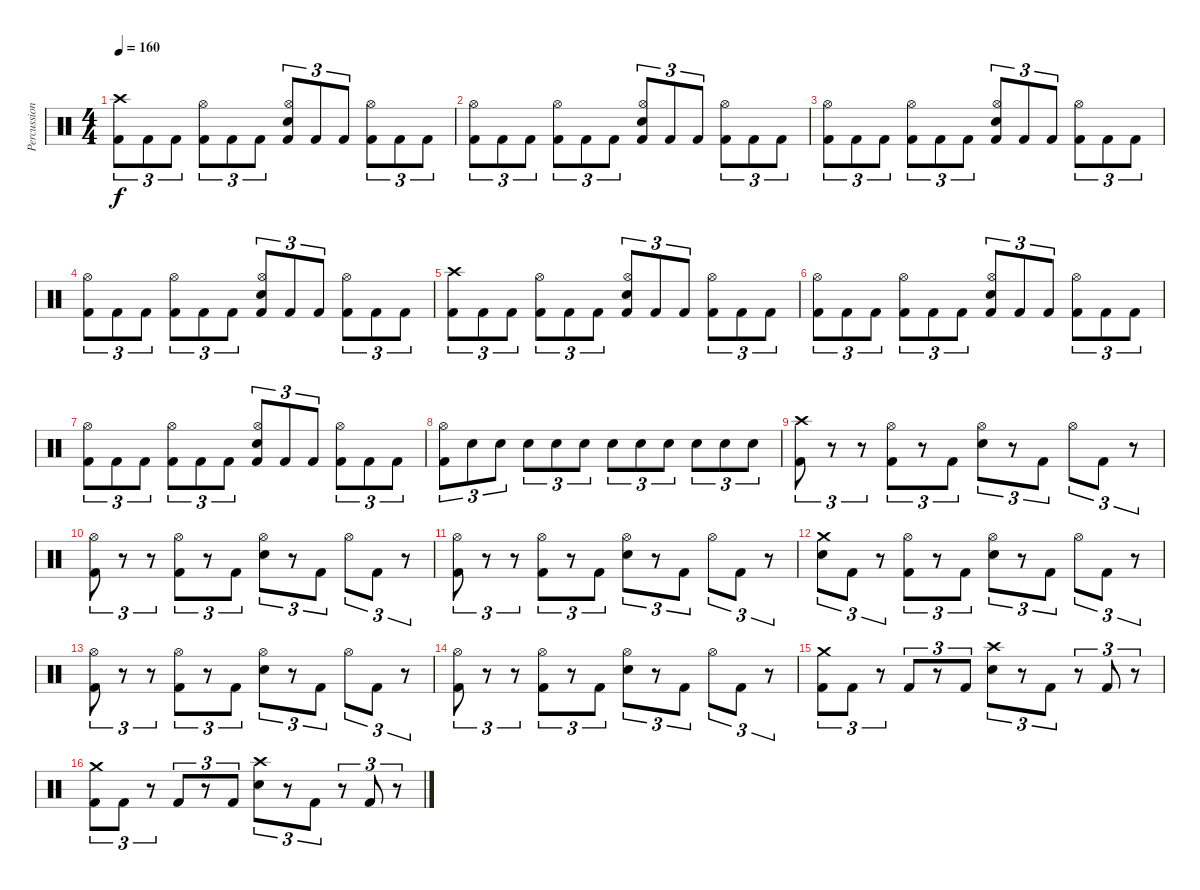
\track ("Percussion" "Percussion") {instrument percussion}
\staff {score}
\articulation defaults
\ts (4 4)
\tempo 160
\clef neutral
\ks c
("Crash high (hit)" "Kick (hit) 2").8{tu (3 2) dy f} "Kick (hit) 2".8{tu (3 2)} "Kick (hit) 2".8{tu (3 2)} ("Hi-Hat (open)" "Kick (hit) 2").8{tu (3 2)} "Kick (hit) 2".8{tu (3 2)} "Kick (hit) 2".8{tu (3 2)} ("Hi-Hat (open)" "Electric Snare (hit)" "Kick (hit) 2").8{tu (3 2)} "Kick (hit) 2".8{tu (3 2)} "Kick (hit) 2".8{tu (3 2)} ("Hi-Hat (open)" "Kick (hit) 2").8{tu (3 2)} "Kick (hit) 2".8{tu (3 2)} "Kick (hit) 2".8{tu (3 2)} |
("Hi-Hat (open)" "Kick (hit) 2").8{tu (3 2)} "Kick (hit) 2".8{tu (3 2)} "Kick (hit) 2".8{tu (3 2)} ("Hi-Hat (open)" "Kick (hit) 2").8{tu (3 2)} "Kick (hit) 2".8{tu (3 2)} "Kick (hit) 2".8{tu (3 2)} ("Hi-Hat (open)" "Electric Snare (hit)" "Kick (hit) 2").8{tu (3 2)} "Kick (hit) 2".8{tu (3 2)} "Kick (hit) 2".8{tu (3 2)} ("Hi-Hat (open)" "Kick (hit) 2").8{tu (3 2)} "Kick (hit) 2".8{tu (3 2)} "Kick (hit) 2".8{tu (3 2)} |
("Hi-Hat (open)" "Kick (hit) 2").8{tu (3 2)} "Kick (hit) 2".8{tu (3 2)} "Kick (hit) 2".8{tu (3 2)} ("Hi-Hat (open)" "Kick (hit) 2").8{tu (3 2)} "Kick (hit) 2".8{tu (3 2)} "Kick (hit) 2".8{tu (3 2)} ("Hi-Hat (open)" "Electric Snare (hit)" "Kick (hit) 2").8{tu (3 2)} "Kick (hit) 2".8{tu (3 2)} "Kick (hit) 2".8{tu (3 2)} ("Hi-Hat (open)" "Kick (hit) 2").8{tu (3 2)} "Kick (hit) 2".8{tu (3 2)} "Kick (hit) 2".8{tu (3 2)} |
("Hi-Hat (open)" "Kick (hit) 2").8{tu (3 2)} "Kick (hit) 2".8{tu (3 2)} "Kick (hit) 2".8{tu (3 2)} ("Hi-Hat (open)" "Kick (hit) 2").8{tu (3 2)} "Kick (hit) 2".8{tu (3 2)} "Kick (hit) 2".8{tu (3 2)} ("Hi-Hat (open)" "Electric Snare (hit)" "Kick (hit) 2").8{tu (3 2)} "Kick (hit) 2".8{tu (3 2)} "Kick (hit) 2".8{tu (3 2)} ("Hi-Hat (open)" "Kick (hit) 2").8{tu (3 2)} "Kick (hit) 2".8{tu (3 2)} "Kick (hit) 2".8{tu (3 2)} |
("Crash high (hit)" "Kick (hit) 2").8{tu (3 2)} "Kick (hit) 2".8{tu (3 2)} "Kick (hit) 2".8{tu (3 2)} ("Hi-Hat (open)" "Kick (hit) 2").8{tu (3 2)} "Kick (hit) 2".8{tu (3 2)} "Kick (hit) 2".8{tu (3 2)} ("Hi-Hat (open)" "Electric Snare (hit)" "Kick (hit) 2").8{tu (3 2)} "Kick (hit) 2".8{tu (3 2)} "Kick (hit) 2".8{tu (3 2)} ("Hi-Hat (open)" "Kick (hit) 2").8{tu (3 2)} "Kick (hit) 2".8{tu (3 2)} "Kick (hit) 2".8{tu (3 2)} |
("Hi-Hat (open)" "Kick (hit) 2").8{tu (3 2)} "Kick (hit) 2".8{tu (3 2)} "Kick (hit) 2".8{tu (3 2)} ("Hi-Hat (open)" "Kick (hit) 2").8{tu (3 2)} "Kick (hit) 2".8{tu (3 2)} "Kick (hit) 2".8{tu (3 2)} ("Hi-Hat (open)" "Electric Snare (hit)" "Kick (hit) 2").8{tu (3 2)} "Kick (hit) 2".8{tu (3 2)} "Kick (hit) 2".8{tu (3 2)} ("Hi-Hat (open)" "Kick (hit) 2").8{tu (3 2)} "Kick (hit) 2".8{tu (3 2)} "Kick (hit) 2".8{tu (3 2)} |
("Hi-Hat (open)" "Kick (hit) 2").8{tu (3 2)} "Kick (hit) 2".8{tu (3 2)} "Kick (hit) 2".8{tu (3 2)} ("Hi-Hat (open)" "Kick (hit) 2").8{tu (3 2)} "Kick (hit) 2".8{tu (3 2)} "Kick (hit) 2".8{tu (3 2)} ("Hi-Hat (open)" "Electric Snare (hit)" "Kick (hit) 2").8{tu (3 2)} "Kick (hit) 2".8{tu (3 2)} "Kick (hit) 2".8{tu (3 2)} ("Hi-Hat (open)" "Kick (hit) 2").8{tu (3 2)} "Kick (hit) 2".8{tu (3 2)} "Kick (hit) 2".8{tu (3 2)} |
("Hi-Hat (open)" "Kick (hit) 2").8{tu (3 2)} "Electric Snare (hit)".8{tu (3 2)} "Electric Snare (hit)".8{tu (3 2)} "Electric Snare (hit)".8{tu (3 2)} "Electric Snare (hit)".8{tu (3 2)} "Electric Snare (hit)".8{tu (3 2)} "Electric Snare (hit)".8{tu (3 2)} "Electric Snare (hit)".8{tu (3 2)} "Electric Snare (hit)".8{tu (3 2)} "Electric Snare (hit)".8{tu (3 2)} "Electric Snare (hit)".8{tu (3 2)} "Electric Snare (hit)".8{tu (3 2)} |
("Crash high (hit)" "Kick (hit) 2").8{tu (3 2)} r.8{tu (3 2)} r.8{tu (3 2)} ("Hi-Hat (open)" "Kick (hit) 2").8{tu (3 2)} r.8{tu (3 2)} "Kick (hit) 2".8{tu (3 2)} ("Hi-Hat (open)" "Electric Snare (hit)").8{tu (3 2)} r.8{tu (3 2)} "Kick (hit) 2".8{tu (3 2)} "Hi-Hat (open)".8{tu (3 2)} "Kick (hit) 2".8{tu (3 2)} r.8{tu (3 2)} |
("Hi-Hat (open)" "Kick (hit) 2").8{tu (3 2)} r.8{tu (3 2)} r.8{tu (3 2)} ("Hi-Hat (open)" "Kick (hit) 2").8{tu (3 2)} r.8{tu (3 2)} "Kick (hit) 2".8{tu (3 2)} ("Hi-Hat (open)" "Electric Snare (hit)").8{tu (3 2)} r.8{tu (3 2)} "Kick (hit) 2".8{tu (3 2)} "Hi-Hat (open)".8{tu (3 2)} "Kick (hit) 2".8{tu (3 2)} r.8{tu (3 2)} |
("Hi-Hat (open)" "Kick (hit) 2").8{tu (3 2)} r.8{tu (3 2)} r.8{tu (3 2)} ("Hi-Hat (open)" "Kick (hit) 2").8{tu (3 2)} r.8{tu (3 2)} "Kick (hit) 2".8{tu (3 2)} ("Hi-Hat (open)" "Electric Snare (hit)").8{tu (3 2)} r.8{tu (3 2)} "Kick (hit) 2".8{tu (3 2)} "Hi-Hat (open)".8{tu (3 2)} "Kick (hit) 2".8{tu (3 2)} r.8{tu (3 2)} |
("Crash medium (hit)" "Electric Snare (hit)").8{tu (3 2)} "Kick (hit) 2".8{tu (3 2)} r.8{tu (3 2)} ("Hi-Hat (open)" "Kick (hit) 2").8{tu (3 2)} r.8{tu (3 2)} "Kick (hit) 2".8{tu (3 2)} ("Hi-Hat (open)" "Electric Snare (hit)").8{tu (3 2)} r.8{tu (3 2)} "Kick (hit) 2".8{tu (3 2)} "Hi-Hat (open)".8{tu (3 2)} "Kick (hit) 2".8{tu (3 2)} r.8{tu (3 2)} |
("Hi-Hat (open)" "Kick (hit) 2").8{tu (3 2)} r.8{tu (3 2)} r.8{tu (3 2)} ("Hi-Hat (open)" "Kick (hit) 2").8{tu (3 2)} r.8{tu (3 2)} "Kick (hit) 2".8{tu (3 2)} ("Hi-Hat (open)" "Electric Snare (hit)").8{tu (3 2)} r.8{tu (3 2)} "Kick (hit) 2".8{tu (3 2)} "Hi-Hat (open)".8{tu (3 2)} "Kick (hit) 2".8{tu (3 2)} r.8{tu (3 2)} |
("Hi-Hat (open)" "Kick (hit) 2").8{tu (3 2)} r.8{tu (3 2)} r.8{tu (3 2)} ("Hi-Hat (open)" "Kick (hit) 2").8{tu (3 2)} r.8{tu (3 2)} "Kick (hit) 2".8{tu (3 2)} ("Hi-Hat (open)" "Electric Snare (hit)").8{tu (3 2)} r.8{tu (3 2)} "Kick (hit) 2".8{tu (3 2)} "Hi-Hat (open)".8{tu (3 2)} "Kick (hit) 2".8{tu (3 2)} r.8{tu (3 2)} |
("Crash medium (hit)" "Kick (hit) 2").8{tu (3 2)} "Kick (hit) 2".8{tu (3 2)} r.8{tu (3 2)} "Kick (hit) 2".8{tu (3 2)} r.8{tu (3 2)} "Kick (hit) 2".8{tu (3 2)} ("Crash high (hit)" "Electric Snare (hit)").8{tu (3 2)} r.8{tu (3 2)} "Kick (hit) 2".8{tu (3 2)} r.8{tu (3 2)} "Kick (hit) 2".8{tu (3 2)} r.8{tu (3 2)} |
("Crash medium (hit)" "Kick (hit) 2").8{tu (3 2)} "Kick (hit) 2".8{tu (3 2)} r.8{tu (3 2)} "Kick (hit) 2".8{tu (3 2)} r.8{tu (3 2)} "Kick (hit) 2".8{tu (3 2)} ("Crash high (hit)" "Electric Snare (hit)").8{tu (3 2)} r.8{tu (3 2)} "Kick (hit) 2".8{tu (3 2)} r.8{tu (3 2)} "Kick (hit) 2".8{tu (3 2)} r.8{tu (3 2)}
